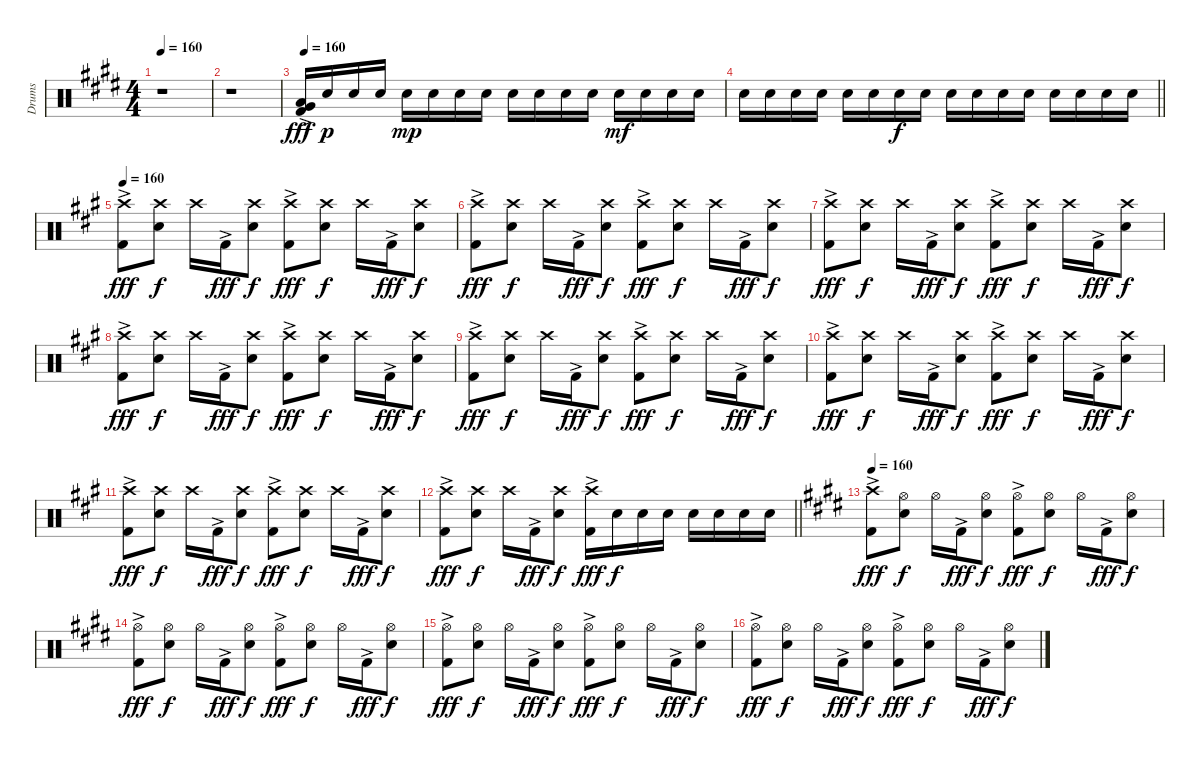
\track ("Drums" "Drums") {instrument percussion}
\staff {score}
\articulation defaults
\ts (4 4)
\tempo 160
\clef neutral
\ks c#minor
r.1{dy f} |
r.1 |
\tempo 160
("Low Tom (hit)"{ac} "Very Low Tom (hit)"{ac} "Kick (hit) 2"{ac}).16{dy fff} "Snare (hit) 2".16{dy p} "Snare (hit) 2".16 "Snare (hit) 2".16 "Snare (hit) 2".16{dy mp} "Snare (hit) 2".16 "Snare (hit) 2".16 "Snare (hit) 2".16 "Snare (hit) 2".16 "Snare (hit) 2".16 "Snare (hit) 2".16 "Snare (hit) 2".16 "Snare (hit) 2".16{dy mf} "Snare (hit) 2".16 "Snare (hit) 2".16 "Snare (hit) 2".16 |
\barLineRight lightlight "Snare (hit) 2".16 "Snare (hit) 2".16 "Snare (hit) 2".16 "Snare (hit) 2".16 "Snare (hit) 2".16 "Snare (hit) 2".16 "Snare (hit) 2".16{dy f} "Snare (hit) 2".16 "Snare (hit) 2".16 "Snare (hit) 2".16 "Snare (hit) 2".16 "Snare (hit) 2".16 "Snare (hit) 2".16 "Snare (hit) 2".16 "Snare (hit) 2".16 "Snare (hit) 2".16
|
\tempo 160
\ks f#minor
("Crash high (hit)" "Kick (hit) 2"{ac}).8{dy fff} ("Crash high (hit)" "Snare (hit) 2").8{dy f} "Crash high (hit)".16 "Kick (hit) 2"{ac}.16{dy fff} ("Crash high (hit)" "Snare (hit) 2").8{dy f} ("Crash high (hit)" "Kick (hit) 2"{ac}).8{dy fff} ("Crash high (hit)" "Snare (hit) 2").8{dy f} "Crash high (hit)".16 "Kick (hit) 2"{ac}.16{dy fff} ("Crash high (hit)" "Snare (hit) 2").8{dy f} |
("Crash high (hit)" "Kick (hit) 2"{ac}).8{dy fff} ("Crash high (hit)" "Snare (hit) 2").8{dy f} "Crash high (hit)".16 "Kick (hit) 2"{ac}.16{dy fff} ("Crash high (hit)" "Snare (hit) 2").8{dy f} ("Crash high (hit)" "Kick (hit) 2"{ac}).8{dy fff} ("Crash high (hit)" "Snare (hit) 2").8{dy f} "Crash high (hit)".16 "Kick (hit) 2"{ac}.16{dy fff} ("Crash high (hit)" "Snare (hit) 2").8{dy f} |
("Crash high (hit)" "Kick (hit) 2"{ac}).8{dy fff} ("Crash high (hit)" "Snare (hit) 2").8{dy f} "Crash high (hit)".16 "Kick (hit) 2"{ac}.16{dy fff} ("Crash high (hit)" "Snare (hit) 2").8{dy f} ("Crash high (hit)" "Kick (hit) 2"{ac}).8{dy fff} ("Crash high (hit)" "Snare (hit) 2").8{dy f} "Crash high (hit)".16 "Kick (hit) 2"{ac}.16{dy fff} ("Crash high (hit)" "Snare (hit) 2").8{dy f} |
("Crash high (hit)" "Kick (hit) 2"{ac}).8{dy fff} ("Crash high (hit)" "Snare (hit) 2").8{dy f} "Crash high (hit)".16 "Kick (hit) 2"{ac}.16{dy fff} ("Crash high (hit)" "Snare (hit) 2").8{dy f} ("Crash high (hit)" "Kick (hit) 2"{ac}).8{dy fff} ("Crash high (hit)" "Snare (hit) 2").8{dy f} "Crash high (hit)".16 "Kick (hit) 2"{ac}.16{dy fff} ("Crash high (hit)" "Snare (hit) 2").8{dy f} |
("Crash high (hit)" "Kick (hit) 2"{ac}).8{dy fff} ("Crash high (hit)" "Snare (hit) 2").8{dy f} "Crash high (hit)".16 "Kick (hit) 2"{ac}.16{dy fff} ("Crash high (hit)" "Snare (hit) 2").8{dy f} ("Crash high (hit)" "Kick (hit) 2"{ac}).8{dy fff} ("Crash high (hit)" "Snare (hit) 2").8{dy f} "Crash high (hit)".16 "Kick (hit) 2"{ac}.16{dy fff} ("Crash high (hit)" "Snare (hit) 2").8{dy f} |
("Crash high (hit)" "Kick (hit) 2"{ac}).8{dy fff} ("Crash high (hit)" "Snare (hit) 2").8{dy f} "Crash high (hit)".16 "Kick (hit) 2"{ac}.16{dy fff} ("Crash high (hit)" "Snare (hit) 2").8{dy f} ("Crash high (hit)" "Kick (hit) 2"{ac}).8{dy fff} ("Crash high (hit)" "Snare (hit) 2").8{dy f} "Crash high (hit)".16 "Kick (hit) 2"{ac}.16{dy fff} ("Crash high (hit)" "Snare (hit) 2").8{dy f} |
("Crash high (hit)" "Kick (hit) 2"{ac}).8{dy fff} ("Crash high (hit)" "Snare (hit) 2").8{dy f} "Crash high (hit)".16 "Kick (hit) 2"{ac}.16{dy fff} ("Crash high (hit)" "Snare (hit) 2").8{dy f} ("Crash high (hit)" "Kick (hit) 2"{ac}).8{dy fff} ("Crash high (hit)" "Snare (hit) 2").8{dy f} "Crash high (hit)".16 "Kick (hit) 2"{ac}.16{dy fff} ("Crash high (hit)" "Snare (hit) 2").8{dy f} |
\barLineRight lightlight
("Crash high (hit)" "Kick (hit) 2"{ac}).8{dy fff} ("Crash high (hit)" "Snare (hit) 2").8{dy f} "Crash high (hit)".16 "Kick (hit) 2"{ac}.16{dy fff} ("Crash high (hit)" "Snare (hit) 2").8{dy f} ("Crash high (hit)" "Kick (hit) 2"{ac}).16{dy fff} "Snare (hit) 2".16{dy f} "Snare (hit) 2".16 "Snare (hit) 2".16 "Snare (hit) 2".16 "Snare (hit) 2".16 "Snare (hit) 2".16 "Snare (hit) 2".16 |
\tempo 160
\ks c#minor
("Crash high (hit)" "Kick (hit) 2"{ac}).8{dy fff} ("Hi-Hat (open)" "Snare (hit) 2").8{dy f} "Hi-Hat (open)".16 "Kick (hit) 2"{ac}.16{dy fff} ("Hi-Hat (open)" "Snare (hit) 2").8{dy f} ("Hi-Hat (open)" "Kick (hit) 2"{ac}).8{dy fff} ("Hi-Hat (open)" "Snare (hit) 2").8{dy f} "Hi-Hat (open)".16 "Kick (hit) 2"{ac}.16{dy fff} ("Hi-Hat (open)" "Snare (hit) 2").8{dy f} |
("Hi-Hat (open)" "Kick (hit) 2"{ac}).8{dy fff} ("Hi-Hat (open)" "Snare (hit) 2").8{dy f} "Hi-Hat (open)".16 "Kick (hit) 2"{ac}.16{dy fff} ("Hi-Hat (open)" "Snare (hit) 2").8{dy f} ("Hi-Hat (open)" "Kick (hit) 2"{ac}).8{dy fff} ("Hi-Hat (open)" "Snare (hit) 2").8{dy f} "Hi-Hat (open)".16 "Kick (hit) 2"{ac}.16{dy fff} ("Hi-Hat (open)" "Snare (hit) 2").8{dy f} |
("Hi-Hat (open)" "Kick (hit) 2"{ac}).8{dy fff} ("Hi-Hat (open)" "Snare (hit) 2").8{dy f} "Hi-Hat (open)".16 "Kick (hit) 2"{ac}.16{dy fff} ("Hi-Hat (open)" "Snare (hit) 2").8{dy f} ("Hi-Hat (open)" "Kick (hit) 2"{ac}).8{dy fff} ("Hi-Hat (open)" "Snare (hit) 2").8{dy f} "Hi-Hat (open)".16 "Kick (hit) 2"{ac}.16{dy fff} ("Hi-Hat (open)" "Snare (hit) 2").8{dy f} |
("Hi-Hat (open)" "Kick (hit) 2"{ac}).8{dy fff} ("Hi-Hat (open)" "Snare (hit) 2").8{dy f} "Hi-Hat (open)".16 "Kick (hit) 2"{ac}.16{dy fff} ("Hi-Hat (open)" "Snare (hit) 2").8{dy f} ("Hi-Hat (open)" "Kick (hit) 2"{ac}).8{dy fff} ("Hi-Hat (open)" "Snare (hit) 2").8{dy f} "Hi-Hat (open)".16 "Kick (hit) 2"{ac}.16{dy fff} ("Hi-Hat (open)" "Snare (hit) 2").8{dy f}
